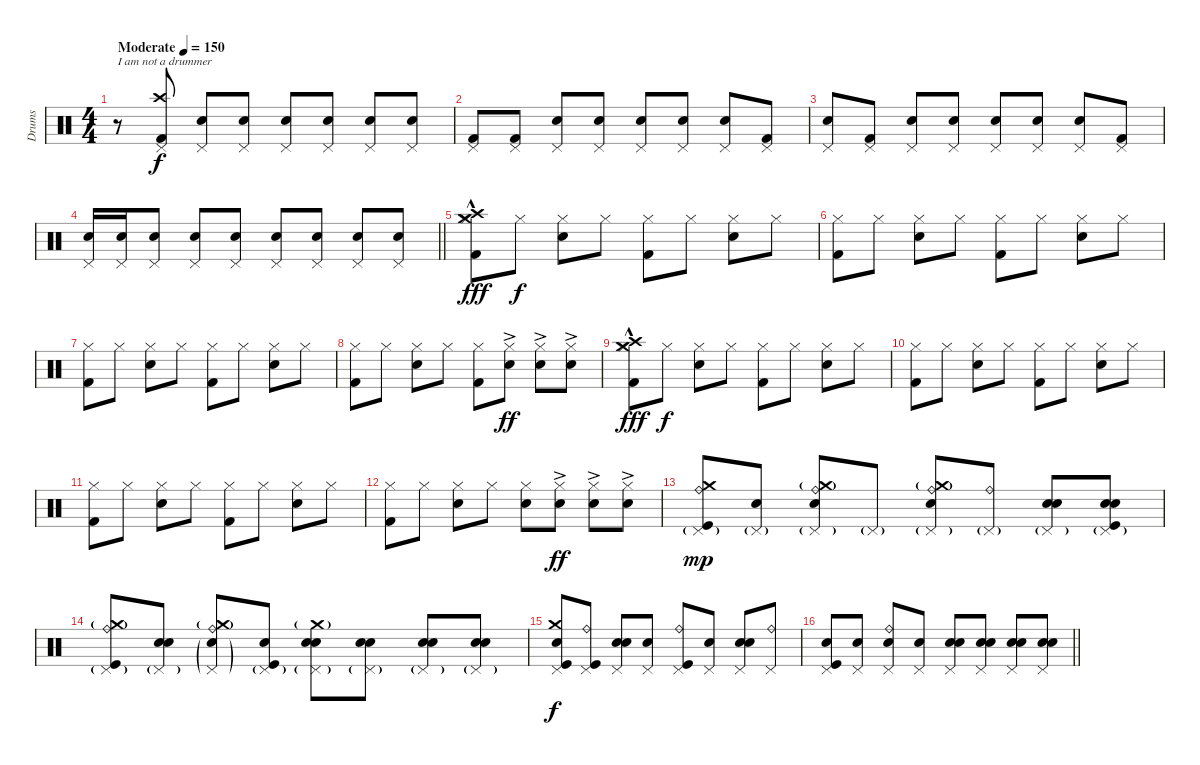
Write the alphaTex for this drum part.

\track ("Drums" "Drums") {instrument percussion}
\staff {score}
\articulation defaults
\ts (4 4)
\tempo (150 "Moderate")
\clef neutral
\ks c
r.8{txt "I am not a drummer" dy f} ("Pedal Hi-Hat (hit)" "Crash high (hit)" "Kick (hit) 2").8 ("Pedal Hi-Hat (hit)" "Snare (hit)").8 ("Pedal Hi-Hat (hit)" "Snare (hit)").8 ("Pedal Hi-Hat (hit)" "Electric Snare (hit)").8 ("Pedal Hi-Hat (hit)" "Snare (hit)").8 ("Pedal Hi-Hat (hit)" "Snare (hit)").8 ("Pedal Hi-Hat (hit)" "Snare (hit)").8 |
("Pedal Hi-Hat (hit)" "Kick (hit) 2").8 ("Pedal Hi-Hat (hit)" "Kick (hit) 2").8 ("Pedal Hi-Hat (hit)" "Snare (hit)").8 ("Pedal Hi-Hat (hit)" "Snare (hit)").8 ("Pedal Hi-Hat (hit)" "Electric Snare (hit)").8 ("Pedal Hi-Hat (hit)" "Snare (hit)").8 ("Pedal Hi-Hat (hit)" "Snare (hit)").8 ("Pedal Hi-Hat (hit)" "Kick (hit) 2").8 |
("Pedal Hi-Hat (hit)" "Snare (hit)").8 ("Pedal Hi-Hat (hit)" "Kick (hit) 2").8 ("Pedal Hi-Hat (hit)" "Snare (hit)").8 ("Pedal Hi-Hat (hit)" "Snare (hit)").8 ("Pedal Hi-Hat (hit)" "Electric Snare (hit)").8 ("Pedal Hi-Hat (hit)" "Snare (hit)").8 ("Pedal Hi-Hat (hit)" "Snare (hit)").8 ("Pedal Hi-Hat (hit)" "Kick (hit) 2").8 |
\barLineRight lightlight
("Pedal Hi-Hat (hit)" "Electric Snare (hit)").16 ("Pedal Hi-Hat (hit)" "Electric Snare (hit)").16 ("Pedal Hi-Hat (hit)" "Electric Snare (hit)").8 ("Pedal Hi-Hat (hit)" "Electric Snare (hit)").8 ("Pedal Hi-Hat (hit)" "Electric Snare (hit)").8 ("Pedal Hi-Hat (hit)" "Electric Snare (hit)").8 ("Pedal Hi-Hat (hit)" "Electric Snare (hit)").8 ("Pedal Hi-Hat (hit)" "Electric Snare (hit)").8 ("Pedal Hi-Hat (hit)" "Electric Snare (hit)").8 |
\section ("" "")
("Crash high (hit)" "Crash medium (hit)"{hac} "Hi-Hat (closed)" "Kick (hit) 2").8{dy fff} "Hi-Hat (closed)".8{dy f} ("Hi-Hat (closed)" "Electric Snare (hit)").8 "Hi-Hat (closed)".8 ("Hi-Hat (closed)" "Kick (hit) 2").8 "Hi-Hat (closed)".8 ("Hi-Hat (closed)" "Electric Snare (hit)").8 "Hi-Hat (closed)".8 |
("Hi-Hat (closed)" "Kick (hit) 2").8 "Hi-Hat (closed)".8 ("Hi-Hat (closed)" "Electric Snare (hit)").8 "Hi-Hat (closed)".8 ("Hi-Hat (closed)" "Kick (hit) 2").8 "Hi-Hat (closed)".8 ("Hi-Hat (closed)" "Electric Snare (hit)").8 "Hi-Hat (closed)".8 |
("Hi-Hat (closed)" "Kick (hit) 2").8 "Hi-Hat (closed)".8 ("Hi-Hat (closed)" "Electric Snare (hit)").8 "Hi-Hat (closed)".8 ("Hi-Hat (closed)" "Kick (hit) 2").8 "Hi-Hat (closed)".8 ("Hi-Hat (closed)" "Electric Snare (hit)").8 "Hi-Hat (closed)".8 |
("Hi-Hat (closed)" "Kick (hit) 2").8 "Hi-Hat (closed)".8 ("Hi-Hat (closed)" "Electric Snare (hit)").8 "Hi-Hat (closed)".8 ("Hi-Hat (closed)" "Kick (hit) 2").8 ("Hi-Hat (closed)" "Electric Snare (hit)"{ac}).8{dy ff} ("Hi-Hat (closed)" "Electric Snare (hit)"{ac}).8 ("Hi-Hat (closed)" "Electric Snare (hit)"{ac}).8 |
("Crash high (hit)" "Crash medium (hit)"{hac} "Hi-Hat (closed)" "Kick (hit) 2").8{dy fff} "Hi-Hat (closed)".8{dy f} ("Hi-Hat (closed)" "Electric Snare (hit)").8 "Hi-Hat (closed)".8 ("Hi-Hat (closed)" "Kick (hit) 2").8 "Hi-Hat (closed)".8 ("Hi-Hat (closed)" "Electric Snare (hit)").8 "Hi-Hat (closed)".8 |
("Hi-Hat (closed)" "Kick (hit) 2").8 "Hi-Hat (closed)".8 ("Hi-Hat (closed)" "Electric Snare (hit)").8 "Hi-Hat (closed)".8 ("Hi-Hat (closed)" "Kick (hit) 2").8 "Hi-Hat (closed)".8 ("Hi-Hat (closed)" "Electric Snare (hit)").8 "Hi-Hat (closed)".8 |
("Hi-Hat (closed)" "Kick (hit) 2").8 "Hi-Hat (closed)".8 ("Hi-Hat (closed)" "Electric Snare (hit)").8 "Hi-Hat (closed)".8 ("Hi-Hat (closed)" "Kick (hit) 2").8 "Hi-Hat (closed)".8 ("Hi-Hat (closed)" "Electric Snare (hit)").8 "Hi-Hat (closed)".8 |
("Hi-Hat (closed)" "Kick (hit) 2").8 "Hi-Hat (closed)".8 ("Hi-Hat (closed)" "Electric Snare (hit)").8 "Hi-Hat (closed)".8 ("Hi-Hat (closed)" "Electric Snare (hit)").8 ("Hi-Hat (closed)" "Electric Snare (hit)"{ac}).8{dy ff} ("Hi-Hat (closed)" "Electric Snare (hit)"{ac}).8 ("Hi-Hat (closed)" "Electric Snare (hit)"{ac}).8 |
("Crash medium (hit)" "Ride (bell)" "Pedal Hi-Hat (hit)"{g} "Kick (hit)").8{dy mp} ("Pedal Hi-Hat (hit)"{g} "Electric Snare (hit)").8 ("Crash medium (hit)"{g} "Ride (bell)" "Pedal Hi-Hat (hit)"{g} "Snare (hit)").8 "Pedal Hi-Hat (hit)"{g}.8 ("Crash medium (hit)"{g} "Ride (bell)" "Pedal Hi-Hat (hit)"{g} "Electric Snare (hit)").8 ("Ride (bell)" "Pedal Hi-Hat (hit)"{g}).8 ("Snare (hit)" "Pedal Hi-Hat (hit)"{g} "Electric Snare (hit)").8 ("Snare (hit)" "Pedal Hi-Hat (hit)"{g} "Kick (hit)" "Electric Snare (hit)").8 |
("Crash medium (hit)"{g} "Ride (bell)" "Pedal Hi-Hat (hit)"{g} "Kick (hit)").8 ("Snare (hit)" "Pedal Hi-Hat (hit)"{g} "Electric Snare (hit)").8 ("Crash medium (hit)"{g} "Ride (bell)" "Pedal Hi-Hat (hit)"{g} "Electric Snare (hit)"{g}).8 ("Snare (hit)" "Pedal Hi-Hat (hit)"{g} "Kick (hit)").8 ("Crash medium (hit)"{g} "Snare (hit)" "Pedal Hi-Hat (hit)"{g} "Electric Snare (hit)").8 ("Snare (hit)" "Pedal Hi-Hat (hit)"{g} "Electric Snare (hit)").8 ("Snare (hit)" "Pedal Hi-Hat (hit)"{g} "Electric Snare (hit)").8 ("Snare (hit)" "Pedal Hi-Hat (hit)"{g} "Electric Snare (hit)").8 |
("Crash medium (hit)" "Snare (hit)" "Pedal Hi-Hat (hit)" "Kick (hit)").8{dy f} ("Ride (bell)" "Pedal Hi-Hat (hit)" "Kick (hit)").8 ("Snare (hit)" "Pedal Hi-Hat (hit)" "Electric Snare (hit)").8 ("Snare (hit)" "Pedal Hi-Hat (hit)").8 ("Ride (bell)" "Pedal Hi-Hat (hit)" "Kick (hit)").8 ("Snare (hit)" "Pedal Hi-Hat (hit)").8 ("Snare (hit)" "Pedal Hi-Hat (hit)" "Electric Snare (hit)").8 ("Ride (bell)" "Pedal Hi-Hat (hit)").8 |
\barLineRight lightlight
("Snare (hit)" "Pedal Hi-Hat (hit)" "Kick (hit)").8 ("Snare (hit)" "Pedal Hi-Hat (hit)").8 ("Ride (bell)" "Pedal Hi-Hat (hit)" "Electric Snare (hit)").8 ("Snare (hit)" "Pedal Hi-Hat (hit)").8 ("Snare (hit)" "Pedal Hi-Hat (hit)" "Electric Snare (hit)").8 ("Snare (hit)" "Pedal Hi-Hat (hit)" "Electric Snare (hit)").8 ("Snare (hit)" "Pedal Hi-Hat (hit)" "Electric Snare (hit)").8 ("Snare (hit)" "Pedal Hi-Hat (hit)" "Electric Snare (hit)").8
